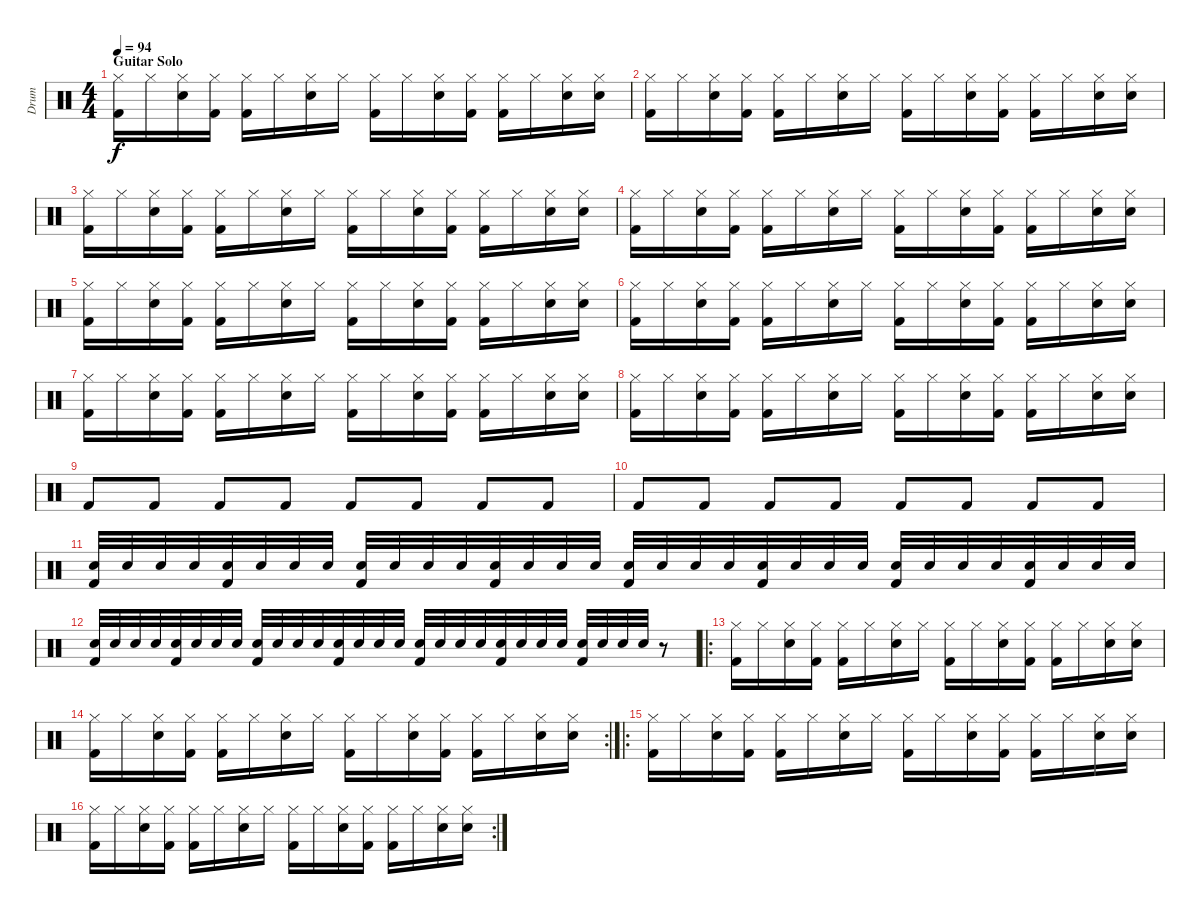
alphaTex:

\track ("Drum" "Drum") {instrument percussion}
\staff {score}
\articulation defaults
\ts (4 4)
\section ("" "Guitar Solo")
\tempo 94
\clef neutral
\ks c
("Kick (hit) 2" "Hi-Hat (closed)").16{dy f} "Hi-Hat (closed)".16 ("Snare (hit) 2" "Hi-Hat (closed)").16 ("Kick (hit) 2" "Hi-Hat (closed)").16 ("Kick (hit) 2" "Hi-Hat (closed)").16 "Hi-Hat (closed)".16 ("Snare (hit) 2" "Hi-Hat (closed)").16 "Hi-Hat (closed)".16 ("Kick (hit) 2" "Hi-Hat (closed)").16 "Hi-Hat (closed)".16 ("Snare (hit) 2" "Hi-Hat (closed)").16 ("Kick (hit) 2" "Hi-Hat (closed)").16 ("Kick (hit) 2" "Hi-Hat (closed)").16 "Hi-Hat (closed)".16 ("Snare (hit) 2" "Hi-Hat (closed)").16 ("Snare (hit) 2" "Hi-Hat (closed)").16 |
("Kick (hit) 2" "Hi-Hat (closed)").16 "Hi-Hat (closed)".16 ("Snare (hit) 2" "Hi-Hat (closed)").16 ("Kick (hit) 2" "Hi-Hat (closed)").16 ("Kick (hit) 2" "Hi-Hat (closed)").16 "Hi-Hat (closed)".16 ("Snare (hit) 2" "Hi-Hat (closed)").16 "Hi-Hat (closed)".16 ("Kick (hit) 2" "Hi-Hat (closed)").16 "Hi-Hat (closed)".16 ("Snare (hit) 2" "Hi-Hat (closed)").16 ("Kick (hit) 2" "Hi-Hat (closed)").16 ("Kick (hit) 2" "Hi-Hat (closed)").16 "Hi-Hat (closed)".16 ("Snare (hit) 2" "Hi-Hat (closed)").16 ("Snare (hit) 2" "Hi-Hat (closed)").16 |
("Kick (hit) 2" "Hi-Hat (closed)").16 "Hi-Hat (closed)".16 ("Snare (hit) 2" "Hi-Hat (closed)").16 ("Kick (hit) 2" "Hi-Hat (closed)").16 ("Kick (hit) 2" "Hi-Hat (closed)").16 "Hi-Hat (closed)".16 ("Snare (hit) 2" "Hi-Hat (closed)").16 "Hi-Hat (closed)".16 ("Kick (hit) 2" "Hi-Hat (closed)").16 "Hi-Hat (closed)".16 ("Snare (hit) 2" "Hi-Hat (closed)").16 ("Kick (hit) 2" "Hi-Hat (closed)").16 ("Kick (hit) 2" "Hi-Hat (closed)").16 "Hi-Hat (closed)".16 ("Snare (hit) 2" "Hi-Hat (closed)").16 ("Snare (hit) 2" "Hi-Hat (closed)").16 |
("Kick (hit) 2" "Hi-Hat (closed)").16 "Hi-Hat (closed)".16 ("Snare (hit) 2" "Hi-Hat (closed)").16 ("Kick (hit) 2" "Hi-Hat (closed)").16 ("Kick (hit) 2" "Hi-Hat (closed)").16 "Hi-Hat (closed)".16 ("Snare (hit) 2" "Hi-Hat (closed)").16 "Hi-Hat (closed)".16 ("Kick (hit) 2" "Hi-Hat (closed)").16 "Hi-Hat (closed)".16 ("Snare (hit) 2" "Hi-Hat (closed)").16 ("Kick (hit) 2" "Hi-Hat (closed)").16 ("Kick (hit) 2" "Hi-Hat (closed)").16 "Hi-Hat (closed)".16 ("Snare (hit) 2" "Hi-Hat (closed)").16 ("Snare (hit) 2" "Hi-Hat (closed)").16 |
("Kick (hit) 2" "Hi-Hat (closed)").16 "Hi-Hat (closed)".16 ("Snare (hit) 2" "Hi-Hat (closed)").16 ("Kick (hit) 2" "Hi-Hat (closed)").16 ("Kick (hit) 2" "Hi-Hat (closed)").16 "Hi-Hat (closed)".16 ("Snare (hit) 2" "Hi-Hat (closed)").16 "Hi-Hat (closed)".16 ("Kick (hit) 2" "Hi-Hat (closed)").16 "Hi-Hat (closed)".16 ("Snare (hit) 2" "Hi-Hat (closed)").16 ("Kick (hit) 2" "Hi-Hat (closed)").16 ("Kick (hit) 2" "Hi-Hat (closed)").16 "Hi-Hat (closed)".16 ("Snare (hit) 2" "Hi-Hat (closed)").16 ("Snare (hit) 2" "Hi-Hat (closed)").16 |
("Kick (hit) 2" "Hi-Hat (closed)").16 "Hi-Hat (closed)".16 ("Snare (hit) 2" "Hi-Hat (closed)").16 ("Kick (hit) 2" "Hi-Hat (closed)").16 ("Kick (hit) 2" "Hi-Hat (closed)").16 "Hi-Hat (closed)".16 ("Snare (hit) 2" "Hi-Hat (closed)").16 "Hi-Hat (closed)".16 ("Kick (hit) 2" "Hi-Hat (closed)").16 "Hi-Hat (closed)".16 ("Snare (hit) 2" "Hi-Hat (closed)").16 ("Kick (hit) 2" "Hi-Hat (closed)").16 ("Kick (hit) 2" "Hi-Hat (closed)").16 "Hi-Hat (closed)".16 ("Snare (hit) 2" "Hi-Hat (closed)").16 ("Snare (hit) 2" "Hi-Hat (closed)").16 |
("Kick (hit) 2" "Hi-Hat (closed)").16 "Hi-Hat (closed)".16 ("Snare (hit) 2" "Hi-Hat (closed)").16 ("Kick (hit) 2" "Hi-Hat (closed)").16 ("Kick (hit) 2" "Hi-Hat (closed)").16 "Hi-Hat (closed)".16 ("Snare (hit) 2" "Hi-Hat (closed)").16 "Hi-Hat (closed)".16 ("Kick (hit) 2" "Hi-Hat (closed)").16 "Hi-Hat (closed)".16 ("Snare (hit) 2" "Hi-Hat (closed)").16 ("Kick (hit) 2" "Hi-Hat (closed)").16 ("Kick (hit) 2" "Hi-Hat (closed)").16 "Hi-Hat (closed)".16 ("Snare (hit) 2" "Hi-Hat (closed)").16 ("Snare (hit) 2" "Hi-Hat (closed)").16 |
("Kick (hit) 2" "Hi-Hat (closed)").16 "Hi-Hat (closed)".16 ("Snare (hit) 2" "Hi-Hat (closed)").16 ("Kick (hit) 2" "Hi-Hat (closed)").16 ("Kick (hit) 2" "Hi-Hat (closed)").16 "Hi-Hat (closed)".16 ("Snare (hit) 2" "Hi-Hat (closed)").16 "Hi-Hat (closed)".16 ("Kick (hit) 2" "Hi-Hat (closed)").16 "Hi-Hat (closed)".16 ("Snare (hit) 2" "Hi-Hat (closed)").16 ("Kick (hit) 2" "Hi-Hat (closed)").16 ("Kick (hit) 2" "Hi-Hat (closed)").16 "Hi-Hat (closed)".16 ("Snare (hit) 2" "Hi-Hat (closed)").16 ("Snare (hit) 2" "Hi-Hat (closed)").16 |
"Kick (hit) 2".8 "Kick (hit) 2".8 "Kick (hit) 2".8 "Kick (hit) 2".8 "Kick (hit) 2".8 "Kick (hit) 2".8 "Kick (hit) 2".8 "Kick (hit) 2".8 |
"Kick (hit) 2".8 "Kick (hit) 2".8 "Kick (hit) 2".8 "Kick (hit) 2".8 "Kick (hit) 2".8 "Kick (hit) 2".8 "Kick (hit) 2".8 "Kick (hit) 2".8 |
("Kick (hit) 2" "Snare (hit) 2").32 "Snare (hit) 2".32 "Snare (hit) 2".32 "Snare (hit) 2".32 ("Kick (hit) 2" "Snare (hit) 2").32 "Snare (hit) 2".32 "Snare (hit) 2".32 "Snare (hit) 2".32 ("Kick (hit) 2" "Snare (hit) 2").32 "Snare (hit) 2".32 "Snare (hit) 2".32 "Snare (hit) 2".32 ("Kick (hit) 2" "Snare (hit) 2").32 "Snare (hit) 2".32 "Snare (hit) 2".32 "Snare (hit) 2".32 ("Kick (hit) 2" "Snare (hit) 2").32 "Snare (hit) 2".32 "Snare (hit) 2".32 "Snare (hit) 2".32 ("Kick (hit) 2" "Snare (hit) 2").32 "Snare (hit) 2".32 "Snare (hit) 2".32 "Snare (hit) 2".32 ("Kick (hit) 2" "Snare (hit) 2").32 "Snare (hit) 2".32 "Snare (hit) 2".32 "Snare (hit) 2".32 ("Kick (hit) 2" "Snare (hit) 2").32 "Snare (hit) 2".32 "Snare (hit) 2".32 "Snare (hit) 2".32 |
("Kick (hit) 2" "Snare (hit) 2").32 "Snare (hit) 2".32 "Snare (hit) 2".32 "Snare (hit) 2".32 ("Kick (hit) 2" "Snare (hit) 2").32 "Snare (hit) 2".32 "Snare (hit) 2".32 "Snare (hit) 2".32 ("Kick (hit) 2" "Snare (hit) 2").32 "Snare (hit) 2".32 "Snare (hit) 2".32 "Snare (hit) 2".32 ("Kick (hit) 2" "Snare (hit) 2").32 "Snare (hit) 2".32 "Snare (hit) 2".32 "Snare (hit) 2".32 ("Kick (hit) 2" "Snare (hit) 2").32 "Snare (hit) 2".32 "Snare (hit) 2".32 "Snare (hit) 2".32 ("Kick (hit) 2" "Snare (hit) 2").32 "Snare (hit) 2".32 "Snare (hit) 2".32 "Snare (hit) 2".32 ("Kick (hit) 2" "Snare (hit) 2").32 "Snare (hit) 2".32 "Snare (hit) 2".32 "Snare (hit) 2".32 r.8 |
\ro
("Kick (hit) 2" "Hi-Hat (closed)").16 "Hi-Hat (closed)".16 ("Snare (hit) 2" "Hi-Hat (closed)").16 ("Kick (hit) 2" "Hi-Hat (closed)").16 ("Kick (hit) 2" "Hi-Hat (closed)").16 "Hi-Hat (closed)".16 ("Snare (hit) 2" "Hi-Hat (closed)").16 "Hi-Hat (closed)".16 ("Kick (hit) 2" "Hi-Hat (closed)").16 "Hi-Hat (closed)".16 ("Snare (hit) 2" "Hi-Hat (closed)").16 ("Kick (hit) 2" "Hi-Hat (closed)").16 ("Kick (hit) 2" "Hi-Hat (closed)").16 "Hi-Hat (closed)".16 ("Snare (hit) 2" "Hi-Hat (closed)").16 ("Snare (hit) 2" "Hi-Hat (closed)").16 |
\rc 2
("Kick (hit) 2" "Hi-Hat (closed)").16 "Hi-Hat (closed)".16 ("Snare (hit) 2" "Hi-Hat (closed)").16 ("Kick (hit) 2" "Hi-Hat (closed)").16 ("Kick (hit) 2" "Hi-Hat (closed)").16 "Hi-Hat (closed)".16 ("Snare (hit) 2" "Hi-Hat (closed)").16 "Hi-Hat (closed)".16 ("Kick (hit) 2" "Hi-Hat (closed)").16 "Hi-Hat (closed)".16 ("Snare (hit) 2" "Hi-Hat (closed)").16 ("Kick (hit) 2" "Hi-Hat (closed)").16 ("Kick (hit) 2" "Hi-Hat (closed)").16 "Hi-Hat (closed)".16 ("Snare (hit) 2" "Hi-Hat (closed)").16 ("Snare (hit) 2" "Hi-Hat (closed)").16 |
\ro
("Kick (hit) 2" "Hi-Hat (closed)").16 "Hi-Hat (closed)".16 ("Snare (hit) 2" "Hi-Hat (closed)").16 ("Kick (hit) 2" "Hi-Hat (closed)").16 ("Kick (hit) 2" "Hi-Hat (closed)").16 "Hi-Hat (closed)".16 ("Snare (hit) 2" "Hi-Hat (closed)").16 "Hi-Hat (closed)".16 ("Kick (hit) 2" "Hi-Hat (closed)").16 "Hi-Hat (closed)".16 ("Snare (hit) 2" "Hi-Hat (closed)").16 ("Kick (hit) 2" "Hi-Hat (closed)").16 ("Kick (hit) 2" "Hi-Hat (closed)").16 "Hi-Hat (closed)".16 ("Snare (hit) 2" "Hi-Hat (closed)").16 ("Snare (hit) 2" "Hi-Hat (closed)").16 |
\rc 2
("Kick (hit) 2" "Hi-Hat (closed)").16 "Hi-Hat (closed)".16 ("Snare (hit) 2" "Hi-Hat (closed)").16 ("Kick (hit) 2" "Hi-Hat (closed)").16 ("Kick (hit) 2" "Hi-Hat (closed)").16 "Hi-Hat (closed)".16 ("Snare (hit) 2" "Hi-Hat (closed)").16 "Hi-Hat (closed)".16 ("Kick (hit) 2" "Hi-Hat (closed)").16 "Hi-Hat (closed)".16 ("Snare (hit) 2" "Hi-Hat (closed)").16 ("Kick (hit) 2" "Hi-Hat (closed)").16 ("Kick (hit) 2" "Hi-Hat (closed)").16 "Hi-Hat (closed)".16 ("Snare (hit) 2" "Hi-Hat (closed)").16 ("Snare (hit) 2" "Hi-Hat (closed)").16
